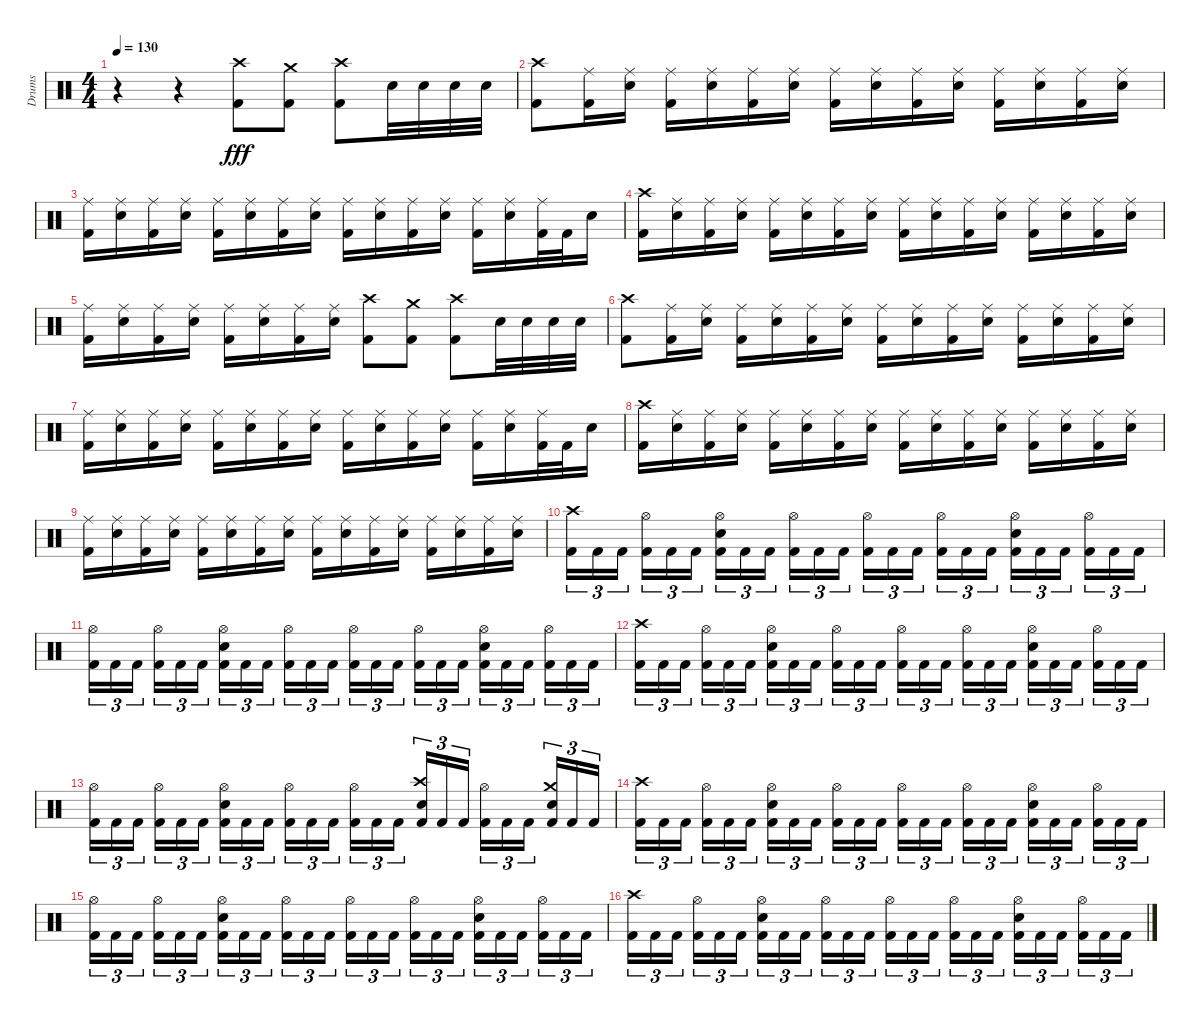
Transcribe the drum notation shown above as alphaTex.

\track ("Drums" "Drums") {instrument percussion}
\staff {score}
\articulation defaults
\ts (4 4)
\tempo 130
\clef neutral
\ks c
r.4{dy fff} r.4 ("Kick (hit) 2" "Crash high (hit)").8 ("Kick (hit) 2" "Crash medium (hit)").8 ("Kick (hit) 2" "Crash high (hit)").8 "Snare (hit) 2".32 "Snare (hit) 2".32 "Snare (hit) 2".32 "Snare (hit) 2".32 |
("Kick (hit) 2" "Crash high (hit)").8 ("Kick (hit) 2" "Ride (middle)").16 ("Snare (hit) 2" "Ride (middle)").16 ("Kick (hit) 2" "Ride (middle)").16 ("Snare (hit) 2" "Ride (middle)").16 ("Kick (hit) 2" "Ride (middle)").16 ("Snare (hit) 2" "Ride (middle)").16 ("Kick (hit) 2" "Ride (middle)").16 ("Snare (hit) 2" "Ride (middle)").16 ("Kick (hit) 2" "Ride (middle)").16 ("Snare (hit) 2" "Ride (middle)").16 ("Kick (hit) 2" "Ride (middle)").16 ("Snare (hit) 2" "Ride (middle)").16 ("Kick (hit) 2" "Ride (middle)").16 ("Snare (hit) 2" "Ride (middle)").16 |
("Kick (hit) 2" "Ride (middle)").16 ("Snare (hit) 2" "Ride (middle)").16 ("Kick (hit) 2" "Ride (middle)").16 ("Snare (hit) 2" "Ride (middle)").16 ("Kick (hit) 2" "Ride (middle)").16 ("Snare (hit) 2" "Ride (middle)").16 ("Kick (hit) 2" "Ride (middle)").16 ("Snare (hit) 2" "Ride (middle)").16 ("Kick (hit) 2" "Ride (middle)").16 ("Snare (hit) 2" "Ride (middle)").16 ("Kick (hit) 2" "Ride (middle)").16 ("Snare (hit) 2" "Ride (middle)").16 ("Kick (hit) 2" "Ride (middle)").16 ("Snare (hit) 2" "Ride (middle)").16 ("Kick (hit) 2" "Ride (middle)").32 "Kick (hit) 2".32 "Snare (hit) 2".16 |
("Kick (hit) 2" "Crash high (hit)").16 ("Snare (hit) 2" "Ride (middle)").16 ("Kick (hit) 2" "Ride (middle)").16 ("Snare (hit) 2" "Ride (middle)").16 ("Kick (hit) 2" "Ride (middle)").16 ("Snare (hit) 2" "Ride (middle)").16 ("Kick (hit) 2" "Ride (middle)").16 ("Snare (hit) 2" "Ride (middle)").16 ("Kick (hit) 2" "Ride (middle)").16 ("Snare (hit) 2" "Ride (middle)").16 ("Kick (hit) 2" "Ride (middle)").16 ("Snare (hit) 2" "Ride (middle)").16 ("Kick (hit) 2" "Ride (middle)").16 ("Snare (hit) 2" "Ride (middle)").16 ("Kick (hit) 2" "Ride (middle)").16 ("Snare (hit) 2" "Ride (middle)").16 |
("Kick (hit) 2" "Ride (middle)").16 ("Snare (hit) 2" "Ride (middle)").16 ("Kick (hit) 2" "Ride (middle)").16 ("Snare (hit) 2" "Ride (middle)").16 ("Kick (hit) 2" "Ride (middle)").16 ("Snare (hit) 2" "Ride (middle)").16 ("Kick (hit) 2" "Ride (middle)").16 ("Snare (hit) 2" "Ride (middle)").16 ("Kick (hit) 2" "Crash high (hit)").8 ("Kick (hit) 2" "Crash medium (hit)").8 ("Kick (hit) 2" "Crash high (hit)").8 "Snare (hit) 2".32 "Snare (hit) 2".32 "Snare (hit) 2".32 "Snare (hit) 2".32 |
("Kick (hit) 2" "Crash high (hit)").8 ("Kick (hit) 2" "Ride (middle)").16 ("Snare (hit) 2" "Ride (middle)").16 ("Kick (hit) 2" "Ride (middle)").16 ("Snare (hit) 2" "Ride (middle)").16 ("Kick (hit) 2" "Ride (middle)").16 ("Snare (hit) 2" "Ride (middle)").16 ("Kick (hit) 2" "Ride (middle)").16 ("Snare (hit) 2" "Ride (middle)").16 ("Kick (hit) 2" "Ride (middle)").16 ("Snare (hit) 2" "Ride (middle)").16 ("Kick (hit) 2" "Ride (middle)").16 ("Snare (hit) 2" "Ride (middle)").16 ("Kick (hit) 2" "Ride (middle)").16 ("Snare (hit) 2" "Ride (middle)").16 |
("Kick (hit) 2" "Ride (middle)").16 ("Snare (hit) 2" "Ride (middle)").16 ("Kick (hit) 2" "Ride (middle)").16 ("Snare (hit) 2" "Ride (middle)").16 ("Kick (hit) 2" "Ride (middle)").16 ("Snare (hit) 2" "Ride (middle)").16 ("Kick (hit) 2" "Ride (middle)").16 ("Snare (hit) 2" "Ride (middle)").16 ("Kick (hit) 2" "Ride (middle)").16 ("Snare (hit) 2" "Ride (middle)").16 ("Kick (hit) 2" "Ride (middle)").16 ("Snare (hit) 2" "Ride (middle)").16 ("Kick (hit) 2" "Ride (middle)").16 ("Snare (hit) 2" "Ride (middle)").16 ("Kick (hit) 2" "Ride (middle)").32 "Kick (hit) 2".32 "Snare (hit) 2".16 |
("Kick (hit) 2" "Crash high (hit)").16 ("Snare (hit) 2" "Ride (middle)").16 ("Kick (hit) 2" "Ride (middle)").16 ("Snare (hit) 2" "Ride (middle)").16 ("Kick (hit) 2" "Ride (middle)").16 ("Snare (hit) 2" "Ride (middle)").16 ("Kick (hit) 2" "Ride (middle)").16 ("Snare (hit) 2" "Ride (middle)").16 ("Kick (hit) 2" "Ride (middle)").16 ("Snare (hit) 2" "Ride (middle)").16 ("Kick (hit) 2" "Ride (middle)").16 ("Snare (hit) 2" "Ride (middle)").16 ("Kick (hit) 2" "Ride (middle)").16 ("Snare (hit) 2" "Ride (middle)").16 ("Kick (hit) 2" "Ride (middle)").16 ("Snare (hit) 2" "Ride (middle)").16 |
("Kick (hit) 2" "Ride (middle)").16 ("Snare (hit) 2" "Ride (middle)").16 ("Kick (hit) 2" "Ride (middle)").16 ("Snare (hit) 2" "Ride (middle)").16 ("Kick (hit) 2" "Ride (middle)").16 ("Snare (hit) 2" "Ride (middle)").16 ("Kick (hit) 2" "Ride (middle)").16 ("Snare (hit) 2" "Ride (middle)").16 ("Kick (hit) 2" "Ride (middle)").16 ("Snare (hit) 2" "Ride (middle)").16 ("Kick (hit) 2" "Ride (middle)").16 ("Snare (hit) 2" "Ride (middle)").16 ("Kick (hit) 2" "Ride (middle)").16 ("Snare (hit) 2" "Ride (middle)").16 ("Kick (hit) 2" "Ride (middle)").16 ("Snare (hit) 2" "Ride (middle)").16 |
("Kick (hit) 2" "Crash high (hit)").16{tu (3 2)} "Kick (hit) 2".16{tu (3 2)} "Kick (hit) 2".16{tu (3 2) beam splitsecondary} ("Kick (hit) 2" "Hi-Hat (open)").16{tu (3 2)} "Kick (hit) 2".16{tu (3 2)} "Kick (hit) 2".16{tu (3 2)} ("Kick (hit) 2" "Hi-Hat (open)" "Snare (hit) 2").16{tu (3 2)} "Kick (hit) 2".16{tu (3 2)} "Kick (hit) 2".16{tu (3 2) beam splitsecondary} ("Kick (hit) 2" "Hi-Hat (open)").16{tu (3 2)} "Kick (hit) 2".16{tu (3 2)} "Kick (hit) 2".16{tu (3 2)} ("Kick (hit) 2" "Hi-Hat (open)").16{tu (3 2)} "Kick (hit) 2".16{tu (3 2)} "Kick (hit) 2".16{tu (3 2) beam splitsecondary} ("Kick (hit) 2" "Hi-Hat (open)").16{tu (3 2)} "Kick (hit) 2".16{tu (3 2)} "Kick (hit) 2".16{tu (3 2)} ("Kick (hit) 2" "Hi-Hat (open)" "Snare (hit) 2").16{tu (3 2)} "Kick (hit) 2".16{tu (3 2)} "Kick (hit) 2".16{tu (3 2) beam splitsecondary} ("Kick (hit) 2" "Hi-Hat (open)").16{tu (3 2)} "Kick (hit) 2".16{tu (3 2)} "Kick (hit) 2".16{tu (3 2)} |
("Kick (hit) 2" "Hi-Hat (open)").16{tu (3 2)} "Kick (hit) 2".16{tu (3 2)} "Kick (hit) 2".16{tu (3 2) beam splitsecondary} ("Kick (hit) 2" "Hi-Hat (open)").16{tu (3 2)} "Kick (hit) 2".16{tu (3 2)} "Kick (hit) 2".16{tu (3 2)} ("Kick (hit) 2" "Hi-Hat (open)" "Snare (hit) 2").16{tu (3 2)} "Kick (hit) 2".16{tu (3 2)} "Kick (hit) 2".16{tu (3 2) beam splitsecondary} ("Kick (hit) 2" "Hi-Hat (open)").16{tu (3 2)} "Kick (hit) 2".16{tu (3 2)} "Kick (hit) 2".16{tu (3 2)} ("Kick (hit) 2" "Hi-Hat (open)").16{tu (3 2)} "Kick (hit) 2".16{tu (3 2)} "Kick (hit) 2".16{tu (3 2) beam splitsecondary} ("Kick (hit) 2" "Hi-Hat (open)").16{tu (3 2)} "Kick (hit) 2".16{tu (3 2)} "Kick (hit) 2".16{tu (3 2)} ("Kick (hit) 2" "Hi-Hat (open)" "Snare (hit) 2").16{tu (3 2)} "Kick (hit) 2".16{tu (3 2)} "Kick (hit) 2".16{tu (3 2) beam splitsecondary} ("Kick (hit) 2" "Hi-Hat (open)").16{tu (3 2)} "Kick (hit) 2".16{tu (3 2)} "Kick (hit) 2".16{tu (3 2)} |
("Kick (hit) 2" "Crash high (hit)").16{tu (3 2)} "Kick (hit) 2".16{tu (3 2)} "Kick (hit) 2".16{tu (3 2) beam splitsecondary} ("Kick (hit) 2" "Hi-Hat (open)").16{tu (3 2)} "Kick (hit) 2".16{tu (3 2)} "Kick (hit) 2".16{tu (3 2)} ("Kick (hit) 2" "Hi-Hat (open)" "Snare (hit) 2").16{tu (3 2)} "Kick (hit) 2".16{tu (3 2)} "Kick (hit) 2".16{tu (3 2) beam splitsecondary} ("Kick (hit) 2" "Hi-Hat (open)").16{tu (3 2)} "Kick (hit) 2".16{tu (3 2)} "Kick (hit) 2".16{tu (3 2)} ("Kick (hit) 2" "Hi-Hat (open)").16{tu (3 2)} "Kick (hit) 2".16{tu (3 2)} "Kick (hit) 2".16{tu (3 2) beam splitsecondary} ("Kick (hit) 2" "Hi-Hat (open)").16{tu (3 2)} "Kick (hit) 2".16{tu (3 2)} "Kick (hit) 2".16{tu (3 2)} ("Kick (hit) 2" "Hi-Hat (open)" "Snare (hit) 2").16{tu (3 2)} "Kick (hit) 2".16{tu (3 2)} "Kick (hit) 2".16{tu (3 2) beam splitsecondary} ("Kick (hit) 2" "Hi-Hat (open)").16{tu (3 2)} "Kick (hit) 2".16{tu (3 2)} "Kick (hit) 2".16{tu (3 2)} |
("Kick (hit) 2" "Hi-Hat (open)").16{tu (3 2)} "Kick (hit) 2".16{tu (3 2)} "Kick (hit) 2".16{tu (3 2) beam splitsecondary} ("Kick (hit) 2" "Hi-Hat (open)").16{tu (3 2)} "Kick (hit) 2".16{tu (3 2)} "Kick (hit) 2".16{tu (3 2)} ("Kick (hit) 2" "Hi-Hat (open)" "Snare (hit) 2").16{tu (3 2)} "Kick (hit) 2".16{tu (3 2)} "Kick (hit) 2".16{tu (3 2) beam splitsecondary} ("Kick (hit) 2" "Hi-Hat (open)").16{tu (3 2)} "Kick (hit) 2".16{tu (3 2)} "Kick (hit) 2".16{tu (3 2)} ("Kick (hit) 2" "Hi-Hat (open)").16{tu (3 2)} "Kick (hit) 2".16{tu (3 2)} "Kick (hit) 2".16{tu (3 2) beam splitsecondary} ("Kick (hit) 2" "Crash high (hit)" "Snare (hit) 2").16{tu (3 2)} "Kick (hit) 2".16{tu (3 2)} "Kick (hit) 2".16{tu (3 2)} ("Kick (hit) 2" "Hi-Hat (open)").16{tu (3 2)} "Kick (hit) 2".16{tu (3 2)} "Kick (hit) 2".16{tu (3 2) beam splitsecondary} ("Kick (hit) 2" "Crash medium (hit)" "Snare (hit) 2").16{tu (3 2)} "Kick (hit) 2".16{tu (3 2)} "Kick (hit) 2".16{tu (3 2)} |
("Kick (hit) 2" "Crash high (hit)").16{tu (3 2)} "Kick (hit) 2".16{tu (3 2)} "Kick (hit) 2".16{tu (3 2) beam splitsecondary} ("Kick (hit) 2" "Hi-Hat (open)").16{tu (3 2)} "Kick (hit) 2".16{tu (3 2)} "Kick (hit) 2".16{tu (3 2)} ("Kick (hit) 2" "Hi-Hat (open)" "Snare (hit) 2").16{tu (3 2)} "Kick (hit) 2".16{tu (3 2)} "Kick (hit) 2".16{tu (3 2) beam splitsecondary} ("Kick (hit) 2" "Hi-Hat (open)").16{tu (3 2)} "Kick (hit) 2".16{tu (3 2)} "Kick (hit) 2".16{tu (3 2)} ("Kick (hit) 2" "Hi-Hat (open)").16{tu (3 2)} "Kick (hit) 2".16{tu (3 2)} "Kick (hit) 2".16{tu (3 2) beam splitsecondary} ("Kick (hit) 2" "Hi-Hat (open)").16{tu (3 2)} "Kick (hit) 2".16{tu (3 2)} "Kick (hit) 2".16{tu (3 2)} ("Kick (hit) 2" "Hi-Hat (open)" "Snare (hit) 2").16{tu (3 2)} "Kick (hit) 2".16{tu (3 2)} "Kick (hit) 2".16{tu (3 2) beam splitsecondary} ("Kick (hit) 2" "Hi-Hat (open)").16{tu (3 2)} "Kick (hit) 2".16{tu (3 2)} "Kick (hit) 2".16{tu (3 2)} |
("Kick (hit) 2" "Hi-Hat (open)").16{tu (3 2)} "Kick (hit) 2".16{tu (3 2)} "Kick (hit) 2".16{tu (3 2) beam splitsecondary} ("Kick (hit) 2" "Hi-Hat (open)").16{tu (3 2)} "Kick (hit) 2".16{tu (3 2)} "Kick (hit) 2".16{tu (3 2)} ("Kick (hit) 2" "Hi-Hat (open)" "Snare (hit) 2").16{tu (3 2)} "Kick (hit) 2".16{tu (3 2)} "Kick (hit) 2".16{tu (3 2) beam splitsecondary} ("Kick (hit) 2" "Hi-Hat (open)").16{tu (3 2)} "Kick (hit) 2".16{tu (3 2)} "Kick (hit) 2".16{tu (3 2)} ("Kick (hit) 2" "Hi-Hat (open)").16{tu (3 2)} "Kick (hit) 2".16{tu (3 2)} "Kick (hit) 2".16{tu (3 2) beam splitsecondary} ("Kick (hit) 2" "Hi-Hat (open)").16{tu (3 2)} "Kick (hit) 2".16{tu (3 2)} "Kick (hit) 2".16{tu (3 2)} ("Kick (hit) 2" "Hi-Hat (open)" "Snare (hit) 2").16{tu (3 2)} "Kick (hit) 2".16{tu (3 2)} "Kick (hit) 2".16{tu (3 2) beam splitsecondary} ("Kick (hit) 2" "Hi-Hat (open)").16{tu (3 2)} "Kick (hit) 2".16{tu (3 2)} "Kick (hit) 2".16{tu (3 2)} |
("Kick (hit) 2" "Crash high (hit)").16{tu (3 2)} "Kick (hit) 2".16{tu (3 2)} "Kick (hit) 2".16{tu (3 2) beam splitsecondary} ("Kick (hit) 2" "Hi-Hat (open)").16{tu (3 2)} "Kick (hit) 2".16{tu (3 2)} "Kick (hit) 2".16{tu (3 2)} ("Kick (hit) 2" "Hi-Hat (open)" "Snare (hit) 2").16{tu (3 2)} "Kick (hit) 2".16{tu (3 2)} "Kick (hit) 2".16{tu (3 2) beam splitsecondary} ("Kick (hit) 2" "Hi-Hat (open)").16{tu (3 2)} "Kick (hit) 2".16{tu (3 2)} "Kick (hit) 2".16{tu (3 2)} ("Kick (hit) 2" "Hi-Hat (open)").16{tu (3 2)} "Kick (hit) 2".16{tu (3 2)} "Kick (hit) 2".16{tu (3 2) beam splitsecondary} ("Kick (hit) 2" "Hi-Hat (open)").16{tu (3 2)} "Kick (hit) 2".16{tu (3 2)} "Kick (hit) 2".16{tu (3 2)} ("Kick (hit) 2" "Hi-Hat (open)" "Snare (hit) 2").16{tu (3 2)} "Kick (hit) 2".16{tu (3 2)} "Kick (hit) 2".16{tu (3 2) beam splitsecondary} ("Kick (hit) 2" "Hi-Hat (open)").16{tu (3 2)} "Kick (hit) 2".16{tu (3 2)} "Kick (hit) 2".16{tu (3 2)}
